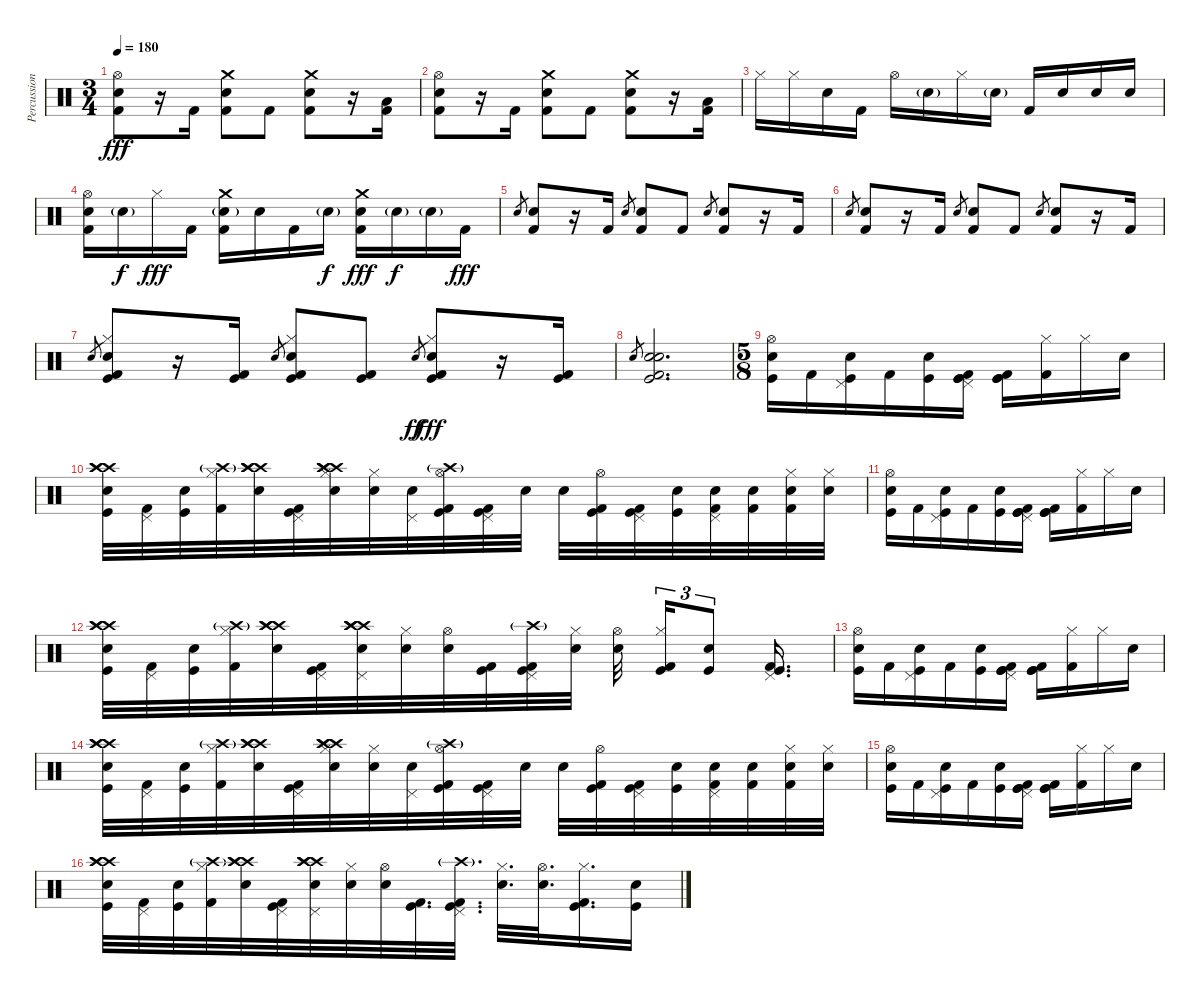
\track ("Percussion" "Percussion") {instrument percussion}
\staff {score}
\articulation defaults
\ts (3 4)
\tempo 180
\clef neutral
\ks c
("Hi-Hat (open)" "Electric Snare (hit)" "Kick (hit) 2").8{dy fff} r.16 "Kick (hit) 2".16 ("Crash medium (hit)" "Electric Snare (hit)" "Kick (hit) 2").8 "Kick (hit) 2".8 ("Crash medium (hit)" "Electric Snare (hit)" "Kick (hit) 2").8 r.16 ("Low Floor Tom (hit)" "Kick (hit) 2").16 |
("Hi-Hat (open)" "Electric Snare (hit)" "Kick (hit) 2").8 r.16 "Kick (hit) 2".16 ("Crash medium (hit)" "Electric Snare (hit)" "Kick (hit) 2").8 "Kick (hit) 2".8 ("Crash medium (hit)" "Electric Snare (hit)" "Kick (hit) 2").8 r.16 ("Low Floor Tom (hit)" "Kick (hit) 2").16 |
"Hi-Hat (closed)".16 "Hi-Hat (closed)".16 "Electric Snare (hit)".16 "Kick (hit) 2".16 "Hi-Hat (open)".16 "Electric Snare (hit)"{g}.16 "Hi-Hat (closed)".16 "Electric Snare (hit)"{g}.16 "Kick (hit) 2".16 "Electric Snare (hit)".16 "Electric Snare (hit)".16 "Electric Snare (hit)".16 |
("Hi-Hat (open)" "Electric Snare (hit)" "Kick (hit) 2").16 "Electric Snare (hit)"{g}.16{dy f} "Hi-Hat (closed)".16{dy fff} "Kick (hit) 2".16 ("Crash medium (hit)" "Electric Snare (hit)"{g} "Kick (hit) 2").16 "Electric Snare (hit)".16 "Kick (hit) 2".16 "Electric Snare (hit)"{g}.16{dy f} ("Crash medium (hit)" "Electric Snare (hit)" "Kick (hit) 2").16{dy fff} "Electric Snare (hit)"{g}.16{dy f} "Electric Snare (hit)"{g}.16 "Kick (hit) 2".16{dy fff} |
"Electric Snare (hit)".8{gr} ("Electric Snare (hit)" "Kick (hit) 2").8 r.16 "Kick (hit) 2".16 "Electric Snare (hit)".8{gr} ("Electric Snare (hit)" "Kick (hit) 2").8 "Kick (hit) 2".8 "Electric Snare (hit)".8{gr} ("Electric Snare (hit)" "Kick (hit) 2").8 r.16 "Kick (hit) 2".16 |
"Electric Snare (hit)".8{gr} ("Electric Snare (hit)" "Kick (hit) 2").8 r.16 "Kick (hit) 2".16 "Electric Snare (hit)".8{gr} ("Electric Snare (hit)" "Kick (hit) 2").8 "Kick (hit) 2".8 "Electric Snare (hit)".8{gr} ("Electric Snare (hit)" "Kick (hit) 2").8 r.16 "Kick (hit) 2".16 |
"Snare (hit) 2".8{gr} ("Hi-Hat (closed)" "Snare (hit) 2" "Kick (hit)" "Kick (hit) 2").8 r.16 ("Kick (hit)" "Kick (hit) 2").16 "Snare (hit) 2".8{gr} ("Hi-Hat (closed)" "Snare (hit) 2" "Kick (hit)" "Kick (hit) 2").8 ("Kick (hit)" "Kick (hit) 2").8 "Snare (hit) 2".8{gr dy ff} ("Hi-Hat (closed)" "Snare (hit) 2" "Kick (hit)" "Kick (hit) 2").8{dy fff} r.16 ("Kick (hit)" "Kick (hit) 2").16 |
"Snare (hit) 2".8{gr} ("Hand Clap (hit)" "Snare (hit) 2" "Kick (hit)" "Kick (hit) 2").2{d} |
\ts (5 8)
("Hi-Hat (open)" "Snare (hit) 2" "Kick (hit)").16{balance 8} "Kick (hit) 2".16 ("Pedal Hi-Hat (hit)" "Snare (hit) 2" "Kick (hit)").16 "Kick (hit) 2".16 ("Snare (hit) 2" "Kick (hit)").16 ("Pedal Hi-Hat (hit)" "Kick (hit)" "Kick (hit) 2" "Kick (hit)").16 ("Kick (hit)" "Kick (hit) 2" "Kick (hit)").16 ("Hi-Hat (closed)" "Kick (hit) 2").16 "Hi-Hat (closed)".16 "Snare (hit) 2".16 |
("Crash high (hit)" "Crash high (hit)" "Snare (hit) 2" "Crash high (hit)" "Kick (hit)").32 ("Pedal Hi-Hat (hit)" "Kick (hit) 2").32 ("Snare (hit) 2" "Kick (hit)").32 ("Hi-Hat (closed)" "Crash high (hit)"{g} "Kick (hit) 2").32 ("Crash high (hit)" "Crash high (hit)" "Snare (hit) 2" "Crash high (hit)").32 ("Pedal Hi-Hat (hit)" "Kick (hit) 2" "Kick (hit)").32 ("Hi-Hat (closed)" "Crash high (hit)" "Crash high (hit)" "Snare (hit) 2" "Crash high (hit)").32 ("Hi-Hat (closed)" "Snare (hit) 2").32 ("Pedal Hi-Hat (hit)" "Snare (hit) 2").32 ("Hi-Hat (open)" "Crash high (hit)"{g} "Kick (hit) 2" "Kick (hit)").32 ("Pedal Hi-Hat (hit)" "Kick (hit)" "Kick (hit) 2").32 "Snare (hit) 2".32 "Snare (hit) 2".32 ("Hi-Hat (open)" "Kick (hit)" "Kick (hit) 2").32 ("Pedal Hi-Hat (hit)" "Kick (hit)" "Kick (hit) 2").32 ("Snare (hit) 2" "Kick (hit)").32 ("Pedal Hi-Hat (hit)" "Snare (hit) 2" "Kick (hit) 2").32 ("Snare (hit) 2" "Kick (hit) 2").32 ("Hi-Hat (closed)" "Snare (hit) 2" "Kick (hit) 2").32 ("Hi-Hat (closed)" "Snare (hit) 2").32 |
("Hi-Hat (open)" "Snare (hit) 2" "Kick (hit)").16 "Kick (hit) 2".16 ("Pedal Hi-Hat (hit)" "Snare (hit) 2" "Kick (hit)").16 "Kick (hit) 2".16 ("Snare (hit) 2" "Kick (hit)").16 ("Pedal Hi-Hat (hit)" "Kick (hit)" "Kick (hit) 2" "Kick (hit)").16 ("Kick (hit)" "Kick (hit) 2" "Kick (hit)").16 ("Hi-Hat (closed)" "Kick (hit) 2").16 "Hi-Hat (closed)".16 "Snare (hit) 2".16 |
("Crash high (hit)" "Crash high (hit)" "Snare (hit) 2" "Crash high (hit)" "Kick (hit)").32 ("Pedal Hi-Hat (hit)" "Kick (hit) 2").32 ("Snare (hit) 2" "Kick (hit)").32 ("Hi-Hat (closed)" "Crash high (hit)"{g} "Kick (hit) 2").32 ("Crash high (hit)" "Crash high (hit)" "Snare (hit) 2" "Crash high (hit)").32 ("Pedal Hi-Hat (hit)" "Kick (hit) 2" "Kick (hit)").32 ("Pedal Hi-Hat (hit)" "Crash high (hit)" "Crash high (hit)" "Snare (hit) 2" "Crash high (hit)").32 ("Hi-Hat (closed)" "Snare (hit) 2").32 ("Hi-Hat (open)" "Snare (hit) 2").32 ("Kick (hit) 2" "Kick (hit)").32 ("Pedal Hi-Hat (hit)" "Crash high (hit)"{g} "Kick (hit)" "Kick (hit) 2").32 ("Hi-Hat (closed)" "Snare (hit) 2").32 ("Hi-Hat (open)" "Snare (hit) 2").32{beam splitsecondary} ("Hi-Hat (closed)" "Kick (hit)" "Kick (hit) 2").16{tu (3 2)} ("Snare (hit) 2" "Kick (hit)").8{tu (3 2)} ("Pedal Hi-Hat (hit)" "Kick (hit)" "Kick (hit) 2").16{d} |
("Hi-Hat (open)" "Snare (hit) 2" "Kick (hit)").16 "Kick (hit) 2".16 ("Pedal Hi-Hat (hit)" "Snare (hit) 2" "Kick (hit)").16 "Kick (hit) 2".16 ("Snare (hit) 2" "Kick (hit)").16 ("Pedal Hi-Hat (hit)" "Kick (hit)" "Kick (hit) 2" "Kick (hit)").16 ("Kick (hit)" "Kick (hit) 2" "Kick (hit)").16 ("Hi-Hat (closed)" "Kick (hit) 2").16 "Hi-Hat (closed)".16 "Snare (hit) 2".16 |
("Crash high (hit)" "Crash high (hit)" "Snare (hit) 2" "Crash high (hit)" "Kick (hit)").32 ("Pedal Hi-Hat (hit)" "Kick (hit) 2").32 ("Snare (hit) 2" "Kick (hit)").32 ("Hi-Hat (closed)" "Crash high (hit)"{g} "Kick (hit) 2").32 ("Crash high (hit)" "Crash high (hit)" "Snare (hit) 2" "Crash high (hit)").32 ("Pedal Hi-Hat (hit)" "Kick (hit) 2" "Kick (hit)").32 ("Hi-Hat (closed)" "Crash high (hit)" "Crash high (hit)" "Snare (hit) 2" "Crash high (hit)").32 ("Hi-Hat (closed)" "Snare (hit) 2").32 ("Pedal Hi-Hat (hit)" "Snare (hit) 2").32 ("Hi-Hat (open)" "Crash high (hit)"{g} "Kick (hit) 2" "Kick (hit)").32 ("Pedal Hi-Hat (hit)" "Kick (hit)" "Kick (hit) 2").32 "Snare (hit) 2".32 "Snare (hit) 2".32 ("Hi-Hat (open)" "Kick (hit)" "Kick (hit) 2").32 ("Pedal Hi-Hat (hit)" "Kick (hit)" "Kick (hit) 2").32 ("Snare (hit) 2" "Kick (hit)").32 ("Pedal Hi-Hat (hit)" "Snare (hit) 2" "Kick (hit) 2").32 ("Snare (hit) 2" "Kick (hit) 2").32 ("Hi-Hat (closed)" "Snare (hit) 2" "Kick (hit) 2").32 ("Hi-Hat (closed)" "Snare (hit) 2").32 |
("Hi-Hat (open)" "Snare (hit) 2" "Kick (hit)").16 "Kick (hit) 2".16 ("Pedal Hi-Hat (hit)" "Snare (hit) 2" "Kick (hit)").16 "Kick (hit) 2".16 ("Snare (hit) 2" "Kick (hit)").16 ("Pedal Hi-Hat (hit)" "Kick (hit)" "Kick (hit) 2" "Kick (hit)").16 ("Kick (hit)" "Kick (hit) 2" "Kick (hit)").16 ("Hi-Hat (closed)" "Kick (hit) 2").16 "Hi-Hat (closed)".16 "Snare (hit) 2".16 |
("Crash high (hit)" "Crash high (hit)" "Snare (hit) 2" "Crash high (hit)" "Kick (hit)").32 ("Pedal Hi-Hat (hit)" "Kick (hit) 2").32 ("Snare (hit) 2" "Kick (hit)").32 ("Hi-Hat (closed)" "Crash high (hit)"{g} "Kick (hit) 2").32 ("Crash high (hit)" "Crash high (hit)" "Snare (hit) 2" "Crash high (hit)").32 ("Pedal Hi-Hat (hit)" "Kick (hit) 2" "Kick (hit)").32 ("Pedal Hi-Hat (hit)" "Crash high (hit)" "Crash high (hit)" "Snare (hit) 2" "Crash high (hit)").32 ("Hi-Hat (closed)" "Snare (hit) 2").32 ("Hi-Hat (open)" "Snare (hit) 2").32 ("Kick (hit) 2" "Kick (hit)").32{d} ("Pedal Hi-Hat (hit)" "Crash high (hit)"{g} "Kick (hit)" "Kick (hit) 2").32{d} ("Hi-Hat (closed)" "Snare (hit) 2").32{d} ("Hi-Hat (open)" "Snare (hit) 2").32{d} ("Hi-Hat (closed)" "Kick (hit)" "Kick (hit) 2").16{d} ("Snare (hit) 2" "Kick (hit)").16
